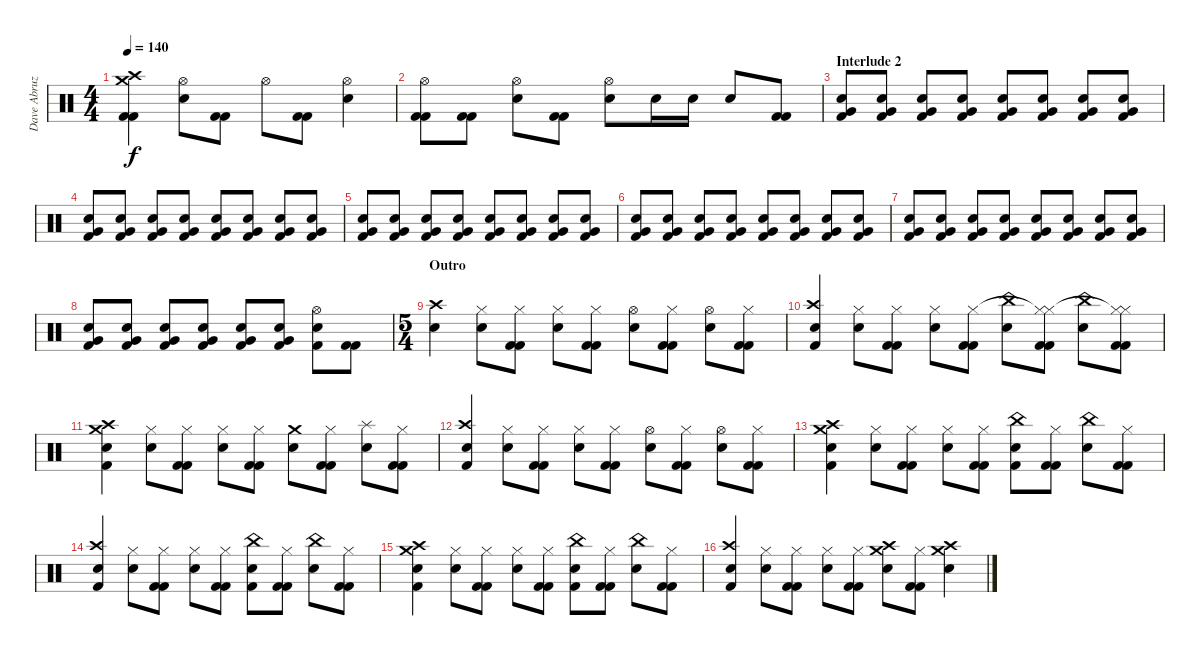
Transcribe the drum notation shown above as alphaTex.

\track ("Dave Abruzzese" "Dave Abruz") {instrument percussion}
\staff {score}
\articulation defaults
\ts (4 4)
\tempo 140
\clef neutral
\ks c
("Crash medium (hit)" "Kick (hit) 2" "Kick (hit) 2" "Crash high (hit)").4{dy f} ("Electric Snare (hit)" "Hi-Hat (open)").8 ("Kick (hit) 2" "Kick (hit) 2").8 "Hi-Hat (open)".8 ("Kick (hit) 2" "Kick (hit) 2").8 ("Electric Snare (hit)" "Hi-Hat (open)").4 |
("Kick (hit) 2" "Kick (hit) 2" "Hi-Hat (open)").8 ("Kick (hit) 2" "Kick (hit) 2").8 ("Electric Snare (hit)" "Hi-Hat (open)").8 ("Kick (hit) 2" "Kick (hit) 2").8 ("Electric Snare (hit)" "Hi-Hat (open)").8 "Electric Snare (hit)".16 "Electric Snare (hit)".16 "Electric Snare (hit)".8 ("Kick (hit) 2" "Kick (hit) 2").8 |
\section ("" "Interlude 2")
("Electric Snare (hit)" "Kick (hit) 2" "Very Low Tom (hit)").8 ("Electric Snare (hit)" "Kick (hit) 2" "Very Low Tom (hit)").8 ("Electric Snare (hit)" "Kick (hit) 2" "Very Low Tom (hit)").8 ("Electric Snare (hit)" "Kick (hit) 2" "Very Low Tom (hit)").8 ("Electric Snare (hit)" "Kick (hit) 2" "Very Low Tom (hit)").8 ("Electric Snare (hit)" "Kick (hit) 2" "Very Low Tom (hit)").8 ("Electric Snare (hit)" "Kick (hit) 2" "Very Low Tom (hit)").8 ("Electric Snare (hit)" "Kick (hit) 2" "Very Low Tom (hit)").8 |
("Electric Snare (hit)" "Kick (hit) 2" "Very Low Tom (hit)").8 ("Electric Snare (hit)" "Kick (hit) 2" "Very Low Tom (hit)").8 ("Electric Snare (hit)" "Kick (hit) 2" "Very Low Tom (hit)").8 ("Electric Snare (hit)" "Kick (hit) 2" "Very Low Tom (hit)").8 ("Electric Snare (hit)" "Kick (hit) 2" "Very Low Tom (hit)").8 ("Electric Snare (hit)" "Kick (hit) 2" "Very Low Tom (hit)").8 ("Electric Snare (hit)" "Kick (hit) 2" "Very Low Tom (hit)").8 ("Electric Snare (hit)" "Kick (hit) 2" "Very Low Tom (hit)").8 |
("Electric Snare (hit)" "Kick (hit) 2" "Very Low Tom (hit)").8 ("Electric Snare (hit)" "Kick (hit) 2" "Very Low Tom (hit)").8 ("Electric Snare (hit)" "Kick (hit) 2" "Very Low Tom (hit)").8 ("Electric Snare (hit)" "Kick (hit) 2" "Very Low Tom (hit)").8 ("Electric Snare (hit)" "Kick (hit) 2" "Very Low Tom (hit)").8 ("Electric Snare (hit)" "Kick (hit) 2" "Very Low Tom (hit)").8 ("Electric Snare (hit)" "Kick (hit) 2" "Very Low Tom (hit)").8 ("Electric Snare (hit)" "Kick (hit) 2" "Very Low Tom (hit)").8 |
("Electric Snare (hit)" "Kick (hit) 2" "Very Low Tom (hit)").8 ("Electric Snare (hit)" "Kick (hit) 2" "Very Low Tom (hit)").8 ("Electric Snare (hit)" "Kick (hit) 2" "Very Low Tom (hit)").8 ("Electric Snare (hit)" "Kick (hit) 2" "Very Low Tom (hit)").8 ("Electric Snare (hit)" "Kick (hit) 2" "Very Low Tom (hit)").8 ("Electric Snare (hit)" "Kick (hit) 2" "Very Low Tom (hit)").8 ("Electric Snare (hit)" "Kick (hit) 2" "Very Low Tom (hit)").8 ("Electric Snare (hit)" "Kick (hit) 2" "Very Low Tom (hit)").8 |
("Electric Snare (hit)" "Kick (hit) 2" "Very Low Tom (hit)").8 ("Electric Snare (hit)" "Kick (hit) 2" "Very Low Tom (hit)").8 ("Electric Snare (hit)" "Kick (hit) 2" "Very Low Tom (hit)").8 ("Electric Snare (hit)" "Kick (hit) 2" "Very Low Tom (hit)").8 ("Electric Snare (hit)" "Kick (hit) 2" "Very Low Tom (hit)").8 ("Electric Snare (hit)" "Kick (hit) 2" "Very Low Tom (hit)").8 ("Electric Snare (hit)" "Kick (hit) 2" "Very Low Tom (hit)").8 ("Electric Snare (hit)" "Kick (hit) 2" "Very Low Tom (hit)").8 |
("Electric Snare (hit)" "Kick (hit) 2" "Very Low Tom (hit)").8 ("Electric Snare (hit)" "Kick (hit) 2" "Very Low Tom (hit)").8 ("Electric Snare (hit)" "Kick (hit) 2" "Very Low Tom (hit)").8 ("Electric Snare (hit)" "Kick (hit) 2" "Very Low Tom (hit)").8 ("Electric Snare (hit)" "Kick (hit) 2" "Very Low Tom (hit)").8 ("Electric Snare (hit)" "Kick (hit) 2" "Very Low Tom (hit)").8 ("Electric Snare (hit)" "Kick (hit) 2" "Hi-Hat (open)").8 ("Kick (hit) 2" "Kick (hit) 2").8 |
\ts (5 4)
\section ("" "Outro")
("Electric Snare (hit)" "Crash high (hit)").4 ("Electric Snare (hit)" "Hi-Hat (closed)").8 ("Kick (hit) 2" "Kick (hit) 2" "Hi-Hat (closed)").8 ("Electric Snare (hit)" "Hi-Hat (closed)").8 ("Kick (hit) 2" "Kick (hit) 2" "Hi-Hat (closed)").8 ("Electric Snare (hit)" "Hi-Hat (open)").8 ("Kick (hit) 2" "Kick (hit) 2" "Hi-Hat (closed)").8 ("Electric Snare (hit)" "Hi-Hat (open)").8 ("Kick (hit) 2" "Kick (hit) 2" "Hi-Hat (closed)").8 |
("Kick (hit) 2" "Electric Snare (hit)" "Crash high (hit)").4 ("Electric Snare (hit)" "Hi-Hat (closed)").8 ("Kick (hit) 2" "Kick (hit) 2" "Hi-Hat (closed)").8 ("Electric Snare (hit)" "Hi-Hat (closed)").8 ("Kick (hit) 2" "Kick (hit) 2" "Hi-Hat (closed)").8 ("Electric Snare (hit)" "China (hit)").8 ("Kick (hit) 2" "Kick (hit) 2" "Hi-Hat (closed)"{t} "Hi-Hat (closed)").8 ("Electric Snare (hit)" "China (hit)").8 ("Kick (hit) 2" "Kick (hit) 2" "Hi-Hat (closed)"{t} "Hi-Hat (closed)").8 |
("Crash medium (hit)" "Kick (hit) 2" "Electric Snare (hit)" "Crash high (hit)").4 ("Electric Snare (hit)" "Hi-Hat (closed)").8 ("Kick (hit) 2" "Kick (hit) 2" "Hi-Hat (closed)").8 ("Electric Snare (hit)" "Hi-Hat (closed)").8 ("Kick (hit) 2" "Kick (hit) 2" "Hi-Hat (closed)").8 ("Electric Snare (hit)" "Crash medium (hit)").8 ("Kick (hit) 2" "Kick (hit) 2" "Hi-Hat (closed)").8 ("Electric Snare (hit)" "Splash (hit)").8 ("Kick (hit) 2" "Kick (hit) 2" "Hi-Hat (closed)").8 |
("Kick (hit) 2" "Electric Snare (hit)" "Crash high (hit)").4 ("Electric Snare (hit)" "Hi-Hat (closed)").8 ("Kick (hit) 2" "Kick (hit) 2" "Hi-Hat (closed)").8 ("Electric Snare (hit)" "Hi-Hat (closed)").8 ("Kick (hit) 2" "Kick (hit) 2" "Hi-Hat (closed)").8 ("Electric Snare (hit)" "Hi-Hat (open)").8 ("Kick (hit) 2" "Kick (hit) 2" "Hi-Hat (closed)").8 ("Electric Snare (hit)" "Hi-Hat (open)").8 ("Kick (hit) 2" "Kick (hit) 2" "Hi-Hat (closed)").8 |
("Crash medium (hit)" "Kick (hit) 2" "Electric Snare (hit)" "Crash high (hit)").4 ("Electric Snare (hit)" "Hi-Hat (closed)").8 ("Kick (hit) 2" "Kick (hit) 2" "Hi-Hat (closed)").8 ("Electric Snare (hit)" "Hi-Hat (closed)").8 ("Kick (hit) 2" "Kick (hit) 2" "Hi-Hat (closed)").8 ("Kick (hit) 2" "Electric Snare (hit)" "China (hit)").8 ("Kick (hit) 2" "Kick (hit) 2" "Hi-Hat (closed)").8 ("Electric Snare (hit)" "China (hit)").8 ("Kick (hit) 2" "Kick (hit) 2" "Hi-Hat (closed)").8 |
("Kick (hit) 2" "Electric Snare (hit)" "Crash high (hit)").4 ("Electric Snare (hit)" "Hi-Hat (closed)").8 ("Kick (hit) 2" "Kick (hit) 2" "Hi-Hat (closed)").8 ("Electric Snare (hit)" "Hi-Hat (closed)").8 ("Kick (hit) 2" "Kick (hit) 2" "Hi-Hat (closed)").8 ("Kick (hit) 2" "Electric Snare (hit)" "China (hit)").8 ("Kick (hit) 2" "Kick (hit) 2" "Hi-Hat (closed)").8 ("Electric Snare (hit)" "China (hit)").8 ("Kick (hit) 2" "Kick (hit) 2" "Hi-Hat (closed)").8 |
("Crash medium (hit)" "Kick (hit) 2" "Electric Snare (hit)" "Crash high (hit)").4 ("Electric Snare (hit)" "Hi-Hat (closed)").8 ("Kick (hit) 2" "Kick (hit) 2" "Hi-Hat (closed)").8 ("Electric Snare (hit)" "Hi-Hat (closed)").8 ("Kick (hit) 2" "Kick (hit) 2" "Hi-Hat (closed)").8 ("Kick (hit) 2" "Electric Snare (hit)" "China (hit)").8 ("Kick (hit) 2" "Kick (hit) 2" "Hi-Hat (closed)").8 ("Electric Snare (hit)" "China (hit)").8 ("Kick (hit) 2" "Kick (hit) 2" "Hi-Hat (closed)").8 |
("Kick (hit) 2" "Electric Snare (hit)" "Crash high (hit)").4 ("Electric Snare (hit)" "Hi-Hat (closed)").8 ("Kick (hit) 2" "Kick (hit) 2" "Hi-Hat (closed)").8 ("Electric Snare (hit)" "Hi-Hat (closed)").8 ("Kick (hit) 2" "Kick (hit) 2" "Hi-Hat (closed)").8 ("Crash medium (hit)" "Electric Snare (hit)" "Crash high (hit)").8 ("Kick (hit) 2" "Kick (hit) 2" "Hi-Hat (closed)").8 ("Crash medium (hit)" "Electric Snare (hit)" "Crash high (hit)").4
